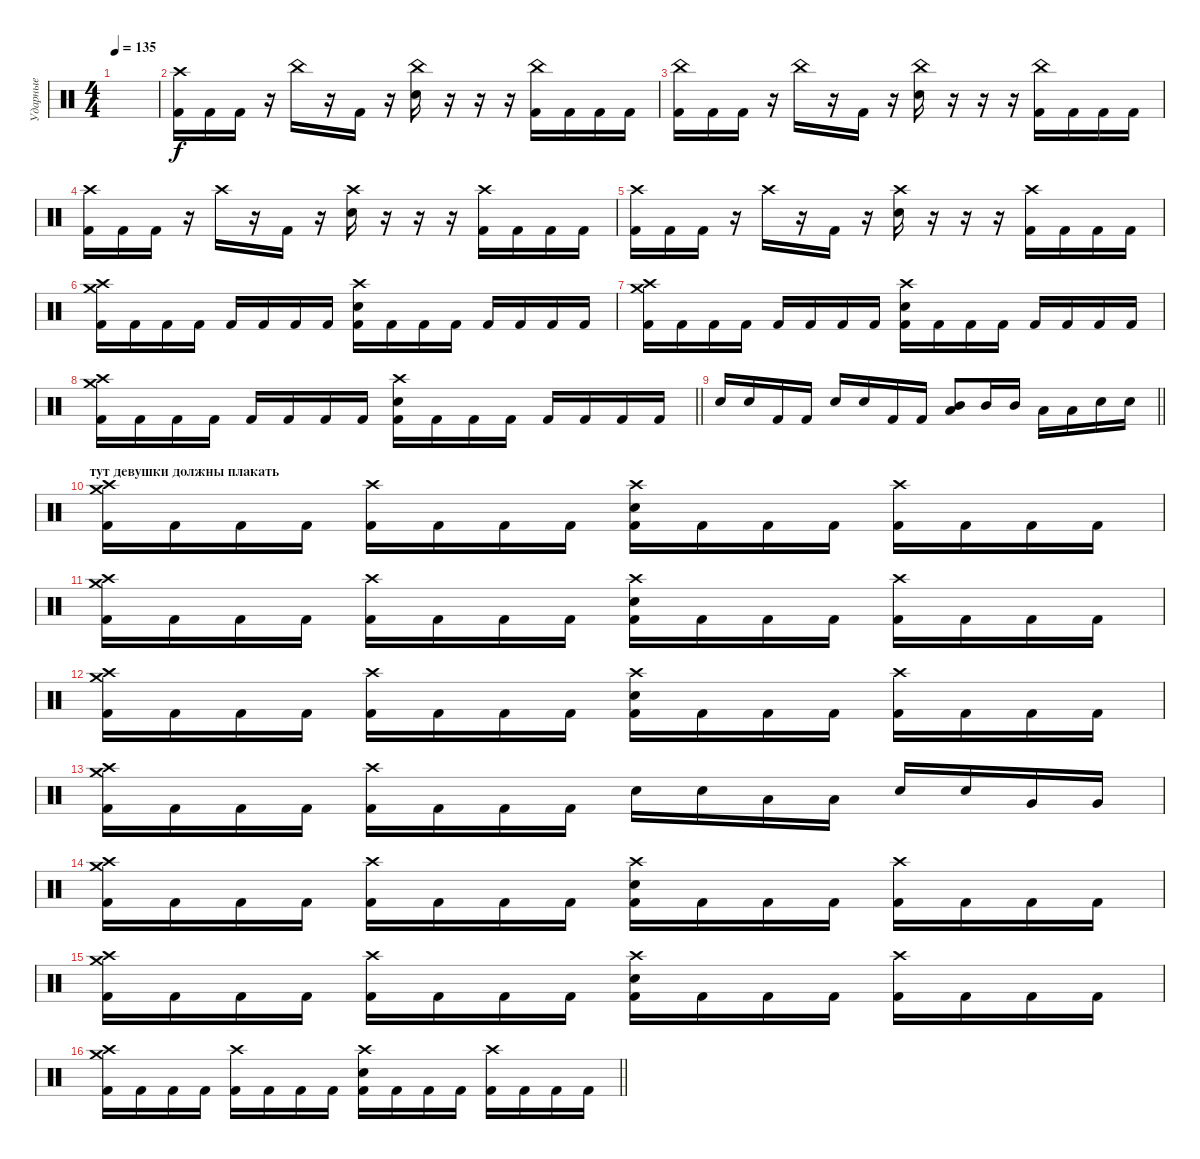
\track ("Ударные" "Ударные") {instrument percussion}
\staff {score}
\articulation defaults
\ts (4 4)
\tempo 135
\clef neutral
\ks c
|
("Crash high (hit)" "Kick (hit) 2").16 "Kick (hit) 2".16 "Kick (hit) 2".16 r.16 "China (hit)".16 r.16 "Kick (hit) 2".16 r.16 ("China (hit)" "Electric Snare (hit)").16 r.16 r.16 r.16 ("China (hit)" "Kick (hit) 2").16 "Kick (hit) 2".16 "Kick (hit) 2".16 "Kick (hit) 2".16 |
("China (hit)" "Kick (hit) 2").16 "Kick (hit) 2".16 "Kick (hit) 2".16 r.16 "China (hit)".16 r.16 "Kick (hit) 2".16 r.16 ("China (hit)" "Electric Snare (hit)").16 r.16 r.16 r.16 ("China (hit)" "Kick (hit) 2").16 "Kick (hit) 2".16 "Kick (hit) 2".16 "Kick (hit) 2".16 |
("Crash high (hit)" "Kick (hit) 2").16 "Kick (hit) 2".16 "Kick (hit) 2".16 r.16 "Crash high (hit)".16 r.16 "Kick (hit) 2".16 r.16 ("Crash high (hit)" "Electric Snare (hit)").16 r.16 r.16 r.16 ("Crash high (hit)" "Kick (hit) 2").16 "Kick (hit) 2".16 "Kick (hit) 2".16 "Kick (hit) 2".16 |
("Crash high (hit)" "Kick (hit) 2").16 "Kick (hit) 2".16 "Kick (hit) 2".16 r.16 "Crash high (hit)".16 r.16 "Kick (hit) 2".16 r.16 ("Crash high (hit)" "Electric Snare (hit)").16 r.16 r.16 r.16 ("Crash high (hit)" "Kick (hit) 2").16 "Kick (hit) 2".16 "Kick (hit) 2".16 "Kick (hit) 2".16 |
("Crash high (hit)" "Crash medium (hit)" "Kick (hit) 2").16 "Kick (hit) 2".16 "Kick (hit) 2".16 "Kick (hit) 2".16 "Kick (hit) 2".16 "Kick (hit) 2".16 "Kick (hit) 2".16 "Kick (hit) 2".16 ("Crash high (hit)" "Electric Snare (hit)" "Kick (hit) 2").16 "Kick (hit) 2".16 "Kick (hit) 2".16 "Kick (hit) 2".16 "Kick (hit) 2".16 "Kick (hit) 2".16 "Kick (hit) 2".16 "Kick (hit) 2".16 |
("Crash high (hit)" "Crash medium (hit)" "Kick (hit) 2").16 "Kick (hit) 2".16 "Kick (hit) 2".16 "Kick (hit) 2".16 "Kick (hit) 2".16 "Kick (hit) 2".16 "Kick (hit) 2".16 "Kick (hit) 2".16 ("Crash high (hit)" "Electric Snare (hit)" "Kick (hit) 2").16 "Kick (hit) 2".16 "Kick (hit) 2".16 "Kick (hit) 2".16 "Kick (hit) 2".16 "Kick (hit) 2".16 "Kick (hit) 2".16 "Kick (hit) 2".16 |
\barLineRight lightlight
("Crash high (hit)" "Crash medium (hit)" "Kick (hit) 2").16 "Kick (hit) 2".16 "Kick (hit) 2".16 "Kick (hit) 2".16 "Kick (hit) 2".16 "Kick (hit) 2".16 "Kick (hit) 2".16 "Kick (hit) 2".16 ("Crash high (hit)" "Electric Snare (hit)" "Kick (hit) 2").16 "Kick (hit) 2".16 "Kick (hit) 2".16 "Kick (hit) 2".16 "Kick (hit) 2".16 "Kick (hit) 2".16 "Kick (hit) 2".16 "Kick (hit) 2".16 |
\barLineRight lightlight "Electric Snare (hit)".16 "Electric Snare (hit)".16 "Kick (hit) 2".16 "Kick (hit) 2".16 "Electric Snare (hit)".16 "Electric Snare (hit)".16 "Kick (hit) 2".16 "Kick (hit) 2".16
("Mid Tom (hit)" "Low Tom (hit)").8 "Mid Tom (hit)".16 "Mid Tom (hit)".16 "Low Tom (hit)".16 "Low Tom (hit)".16 "Electric Snare (hit)".16 "Electric Snare (hit)".16 |
\section ("" "тут девушки должны плакать")
("Crash high (hit)" "Crash medium (hit)" "Kick (hit) 2").16 "Kick (hit) 2".16 "Kick (hit) 2".16 "Kick (hit) 2".16 ("Crash high (hit)" "Kick (hit) 2").16 "Kick (hit) 2".16 "Kick (hit) 2".16 "Kick (hit) 2".16 ("Crash high (hit)" "Electric Snare (hit)" "Kick (hit) 2").16 "Kick (hit) 2".16 "Kick (hit) 2".16 "Kick (hit) 2".16 ("Crash high (hit)" "Kick (hit) 2").16 "Kick (hit) 2".16 "Kick (hit) 2".16 "Kick (hit) 2".16 |
("Crash high (hit)" "Crash medium (hit)" "Kick (hit) 2").16 "Kick (hit) 2".16 "Kick (hit) 2".16 "Kick (hit) 2".16 ("Crash high (hit)" "Kick (hit) 2").16 "Kick (hit) 2".16 "Kick (hit) 2".16 "Kick (hit) 2".16 ("Crash high (hit)" "Electric Snare (hit)" "Kick (hit) 2").16 "Kick (hit) 2".16 "Kick (hit) 2".16 "Kick (hit) 2".16 ("Crash high (hit)" "Kick (hit) 2").16 "Kick (hit) 2".16 "Kick (hit) 2".16 "Kick (hit) 2".16 |
("Crash high (hit)" "Crash medium (hit)" "Kick (hit) 2").16 "Kick (hit) 2".16 "Kick (hit) 2".16 "Kick (hit) 2".16 ("Crash high (hit)" "Kick (hit) 2").16 "Kick (hit) 2".16 "Kick (hit) 2".16 "Kick (hit) 2".16 ("Crash high (hit)" "Electric Snare (hit)" "Kick (hit) 2").16 "Kick (hit) 2".16 "Kick (hit) 2".16 "Kick (hit) 2".16 ("Crash high (hit)" "Kick (hit) 2").16 "Kick (hit) 2".16 "Kick (hit) 2".16 "Kick (hit) 2".16 |
("Crash high (hit)" "Crash medium (hit)" "Kick (hit) 2").16 "Kick (hit) 2".16 "Kick (hit) 2".16 "Kick (hit) 2".16 ("Crash high (hit)" "Kick (hit) 2").16 "Kick (hit) 2".16 "Kick (hit) 2".16 "Kick (hit) 2".16 "Electric Snare (hit)".16 "Electric Snare (hit)".16 "Low Tom (hit)".16 "Low Tom (hit)".16 "Electric Snare (hit)".16 "Electric Snare (hit)".16 "Very Low Tom (hit)".16 "Very Low Tom (hit)".16 |
("Crash high (hit)" "Crash medium (hit)" "Kick (hit) 2").16 "Kick (hit) 2".16 "Kick (hit) 2".16 "Kick (hit) 2".16 ("Crash high (hit)" "Kick (hit) 2").16 "Kick (hit) 2".16 "Kick (hit) 2".16 "Kick (hit) 2".16 ("Crash high (hit)" "Electric Snare (hit)" "Kick (hit) 2").16 "Kick (hit) 2".16 "Kick (hit) 2".16 "Kick (hit) 2".16 ("Crash high (hit)" "Kick (hit) 2").16 "Kick (hit) 2".16 "Kick (hit) 2".16 "Kick (hit) 2".16 |
("Crash high (hit)" "Crash medium (hit)" "Kick (hit) 2").16 "Kick (hit) 2".16 "Kick (hit) 2".16 "Kick (hit) 2".16 ("Crash high (hit)" "Kick (hit) 2").16 "Kick (hit) 2".16 "Kick (hit) 2".16 "Kick (hit) 2".16 ("Crash high (hit)" "Electric Snare (hit)" "Kick (hit) 2").16 "Kick (hit) 2".16 "Kick (hit) 2".16 "Kick (hit) 2".16 ("Crash high (hit)" "Kick (hit) 2").16 "Kick (hit) 2".16 "Kick (hit) 2".16 "Kick (hit) 2".16 |
\barLineRight lightlight
("Crash high (hit)" "Crash medium (hit)" "Kick (hit) 2").16 "Kick (hit) 2".16 "Kick (hit) 2".16 "Kick (hit) 2".16 ("Crash high (hit)" "Kick (hit) 2").16 "Kick (hit) 2".16 "Kick (hit) 2".16 "Kick (hit) 2".16 ("Crash high (hit)" "Electric Snare (hit)" "Kick (hit) 2").16 "Kick (hit) 2".16 "Kick (hit) 2".16 "Kick (hit) 2".16 ("Crash high (hit)" "Kick (hit) 2").16 "Kick (hit) 2".16 "Kick (hit) 2".16 "Kick (hit) 2".16
